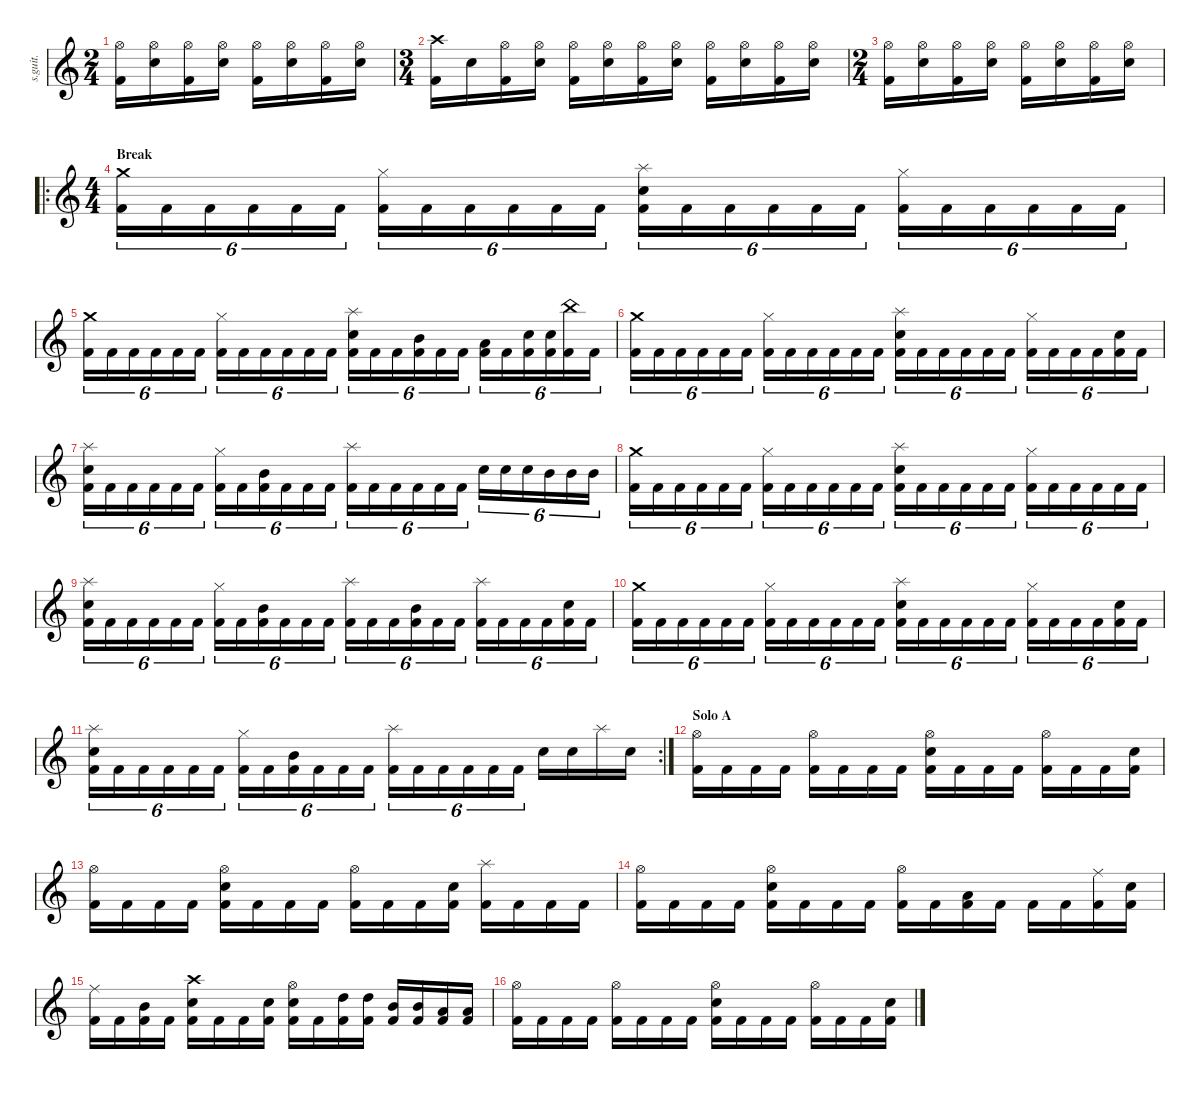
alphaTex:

\defaultSystemsLayout 4
\hideDynamics
\bracketExtendMode nobrackets
\track ("Percussion" "s.guit.") {instrument percussion}
\staff {score}
\articulation defaults
\ts (2 4)
\beaming (8 2 2 2 2)
\tempo (120 hide)
\clef g2
\ks c
("Hi-Hat (open)" "Kick (hit) 2").16{lyrics (0 "") lyrics (1 "") lyrics (2 "") lyrics (3 "") lyrics (4 "") dy f} ("Hi-Hat (open)" "Snare (hit) 2").16{lyrics (0 "") lyrics (1 "") lyrics (2 "") lyrics (3 "") lyrics (4 "")} ("Hi-Hat (open)" "Kick (hit) 2").16{lyrics (0 "") lyrics (1 "") lyrics (2 "") lyrics (3 "") lyrics (4 "")} ("Hi-Hat (open)" "Snare (hit) 2").16{lyrics (0 "") lyrics (1 "") lyrics (2 "") lyrics (3 "") lyrics (4 "")} ("Hi-Hat (open)" "Kick (hit) 2").16{lyrics (0 "") lyrics (1 "") lyrics (2 "") lyrics (3 "") lyrics (4 "")} ("Hi-Hat (open)" "Snare (hit) 2").16{lyrics (0 "") lyrics (1 "") lyrics (2 "") lyrics (3 "") lyrics (4 "")} ("Hi-Hat (open)" "Kick (hit) 2").16{lyrics (0 "") lyrics (1 "") lyrics (2 "") lyrics (3 "") lyrics (4 "")} ("Hi-Hat (open)" "Snare (hit) 2").16{lyrics (0 "") lyrics (1 "") lyrics (2 "") lyrics (3 "") lyrics (4 "")} |
\ts (3 4)
\beaming (8 2 2 2 2)
("Kick (hit) 2" "Crash high (hit)").16{lyrics (0 "") lyrics (1 "") lyrics (2 "") lyrics (3 "") lyrics (4 "")} "Snare (hit) 2".16{lyrics (0 "") lyrics (1 "") lyrics (2 "") lyrics (3 "") lyrics (4 "")} ("Hi-Hat (open)" "Kick (hit) 2").16{lyrics (0 "") lyrics (1 "") lyrics (2 "") lyrics (3 "") lyrics (4 "")} ("Hi-Hat (open)" "Snare (hit) 2").16{lyrics (0 "") lyrics (1 "") lyrics (2 "") lyrics (3 "") lyrics (4 "")} ("Hi-Hat (open)" "Kick (hit) 2").16{lyrics (0 "") lyrics (1 "") lyrics (2 "") lyrics (3 "") lyrics (4 "")} ("Hi-Hat (open)" "Snare (hit) 2").16{lyrics (0 "") lyrics (1 "") lyrics (2 "") lyrics (3 "") lyrics (4 "")} ("Hi-Hat (open)" "Kick (hit) 2").16{lyrics (0 "") lyrics (1 "") lyrics (2 "") lyrics (3 "") lyrics (4 "")} ("Hi-Hat (open)" "Snare (hit) 2").16{lyrics (0 "") lyrics (1 "") lyrics (2 "") lyrics (3 "") lyrics (4 "")} ("Hi-Hat (open)" "Kick (hit) 2").16{lyrics (0 "") lyrics (1 "") lyrics (2 "") lyrics (3 "") lyrics (4 "")} ("Hi-Hat (open)" "Snare (hit) 2").16{lyrics (0 "") lyrics (1 "") lyrics (2 "") lyrics (3 "") lyrics (4 "")} ("Hi-Hat (open)" "Kick (hit) 2").16{lyrics (0 "") lyrics (1 "") lyrics (2 "") lyrics (3 "") lyrics (4 "")} ("Hi-Hat (open)" "Snare (hit) 2").16{lyrics (0 "") lyrics (1 "") lyrics (2 "") lyrics (3 "") lyrics (4 "")} |
\ts (2 4)
\beaming (8 2 2 2 2)
("Hi-Hat (open)" "Kick (hit) 2").16{lyrics (0 "") lyrics (1 "") lyrics (2 "") lyrics (3 "") lyrics (4 "")} ("Hi-Hat (open)" "Snare (hit) 2").16{lyrics (0 "") lyrics (1 "") lyrics (2 "") lyrics (3 "") lyrics (4 "")} ("Hi-Hat (open)" "Kick (hit) 2").16{lyrics (0 "") lyrics (1 "") lyrics (2 "") lyrics (3 "") lyrics (4 "")} ("Hi-Hat (open)" "Snare (hit) 2").16{lyrics (0 "") lyrics (1 "") lyrics (2 "") lyrics (3 "") lyrics (4 "")} ("Hi-Hat (open)" "Kick (hit) 2").16{lyrics (0 "") lyrics (1 "") lyrics (2 "") lyrics (3 "") lyrics (4 "")} ("Hi-Hat (open)" "Snare (hit) 2").16{lyrics (0 "") lyrics (1 "") lyrics (2 "") lyrics (3 "") lyrics (4 "")} ("Hi-Hat (open)" "Kick (hit) 2").16{lyrics (0 "") lyrics (1 "") lyrics (2 "") lyrics (3 "") lyrics (4 "")} ("Hi-Hat (open)" "Snare (hit) 2").16{lyrics (0 "") lyrics (1 "") lyrics (2 "") lyrics (3 "") lyrics (4 "")} |
\ro
\ts (4 4)
\beaming (8 2 2 2 2)
\section ("" "Break")
("Crash medium (hit)" "Kick (hit) 2").16{tu (6 4) lyrics (0 "") lyrics (1 "") lyrics (2 "") lyrics (3 "") lyrics (4 "")} "Kick (hit) 2".16{tu (6 4) lyrics (0 "") lyrics (1 "") lyrics (2 "") lyrics (3 "") lyrics (4 "")} "Kick (hit) 2".16{tu (6 4) lyrics (0 "") lyrics (1 "") lyrics (2 "") lyrics (3 "") lyrics (4 "")} "Kick (hit) 2".16{tu (6 4) lyrics (0 "") lyrics (1 "") lyrics (2 "") lyrics (3 "") lyrics (4 "")} "Kick (hit) 2".16{tu (6 4) lyrics (0 "") lyrics (1 "") lyrics (2 "") lyrics (3 "") lyrics (4 "")} "Kick (hit) 2".16{tu (6 4) lyrics (0 "") lyrics (1 "") lyrics (2 "") lyrics (3 "") lyrics (4 "")} ("Hi-Hat (closed)" "Kick (hit) 2").16{tu (6 4) lyrics (0 "") lyrics (1 "") lyrics (2 "") lyrics (3 "") lyrics (4 "")} "Kick (hit) 2".16{tu (6 4) lyrics (0 "") lyrics (1 "") lyrics (2 "") lyrics (3 "") lyrics (4 "")} "Kick (hit) 2".16{tu (6 4) lyrics (0 "") lyrics (1 "") lyrics (2 "") lyrics (3 "") lyrics (4 "")} "Kick (hit) 2".16{tu (6 4) lyrics (0 "") lyrics (1 "") lyrics (2 "") lyrics (3 "") lyrics (4 "")} "Kick (hit) 2".16{tu (6 4) lyrics (0 "") lyrics (1 "") lyrics (2 "") lyrics (3 "") lyrics (4 "")} "Kick (hit) 2".16{tu (6 4) lyrics (0 "") lyrics (1 "") lyrics (2 "") lyrics (3 "") lyrics (4 "")} ("Splash (hit)" "Kick (hit) 2" "Snare (hit) 2").16{tu (6 4) lyrics (0 "") lyrics (1 "") lyrics (2 "") lyrics (3 "") lyrics (4 "")} "Kick (hit) 2".16{tu (6 4) lyrics (0 "") lyrics (1 "") lyrics (2 "") lyrics (3 "") lyrics (4 "")} "Kick (hit) 2".16{tu (6 4) lyrics (0 "") lyrics (1 "") lyrics (2 "") lyrics (3 "") lyrics (4 "")} "Kick (hit) 2".16{tu (6 4) lyrics (0 "") lyrics (1 "") lyrics (2 "") lyrics (3 "") lyrics (4 "")} "Kick (hit) 2".16{tu (6 4) lyrics (0 "") lyrics (1 "") lyrics (2 "") lyrics (3 "") lyrics (4 "")} "Kick (hit) 2".16{tu (6 4) lyrics (0 "") lyrics (1 "") lyrics (2 "") lyrics (3 "") lyrics (4 "")} ("Hi-Hat (closed)" "Kick (hit) 2").16{tu (6 4) lyrics (0 "") lyrics (1 "") lyrics (2 "") lyrics (3 "") lyrics (4 "")} "Kick (hit) 2".16{tu (6 4) lyrics (0 "") lyrics (1 "") lyrics (2 "") lyrics (3 "") lyrics (4 "")} "Kick (hit) 2".16{tu (6 4) lyrics (0 "") lyrics (1 "") lyrics (2 "") lyrics (3 "") lyrics (4 "")} "Kick (hit) 2".16{tu (6 4) lyrics (0 "") lyrics (1 "") lyrics (2 "") lyrics (3 "") lyrics (4 "")} "Kick (hit) 2".16{tu (6 4) lyrics (0 "") lyrics (1 "") lyrics (2 "") lyrics (3 "") lyrics (4 "")} "Kick (hit) 2".16{tu (6 4) lyrics (0 "") lyrics (1 "") lyrics (2 "") lyrics (3 "") lyrics (4 "")} |
("Crash medium (hit)" "Kick (hit) 2").16{tu (6 4) lyrics (0 "") lyrics (1 "") lyrics (2 "") lyrics (3 "") lyrics (4 "")} "Kick (hit) 2".16{tu (6 4) lyrics (0 "") lyrics (1 "") lyrics (2 "") lyrics (3 "") lyrics (4 "")} "Kick (hit) 2".16{tu (6 4) lyrics (0 "") lyrics (1 "") lyrics (2 "") lyrics (3 "") lyrics (4 "")} "Kick (hit) 2".16{tu (6 4) lyrics (0 "") lyrics (1 "") lyrics (2 "") lyrics (3 "") lyrics (4 "")} "Kick (hit) 2".16{tu (6 4) lyrics (0 "") lyrics (1 "") lyrics (2 "") lyrics (3 "") lyrics (4 "")} "Kick (hit) 2".16{tu (6 4) lyrics (0 "") lyrics (1 "") lyrics (2 "") lyrics (3 "") lyrics (4 "")} ("Hi-Hat (closed)" "Kick (hit) 2").16{tu (6 4) lyrics (0 "") lyrics (1 "") lyrics (2 "") lyrics (3 "") lyrics (4 "")} "Kick (hit) 2".16{tu (6 4) lyrics (0 "") lyrics (1 "") lyrics (2 "") lyrics (3 "") lyrics (4 "")} "Kick (hit) 2".16{tu (6 4) lyrics (0 "") lyrics (1 "") lyrics (2 "") lyrics (3 "") lyrics (4 "")} "Kick (hit) 2".16{tu (6 4) lyrics (0 "") lyrics (1 "") lyrics (2 "") lyrics (3 "") lyrics (4 "")} "Kick (hit) 2".16{tu (6 4) lyrics (0 "") lyrics (1 "") lyrics (2 "") lyrics (3 "") lyrics (4 "")} "Kick (hit) 2".16{tu (6 4) lyrics (0 "") lyrics (1 "") lyrics (2 "") lyrics (3 "") lyrics (4 "")} ("Splash (hit)" "Kick (hit) 2" "Snare (hit) 2").16{tu (6 4) lyrics (0 "") lyrics (1 "") lyrics (2 "") lyrics (3 "") lyrics (4 "")} "Kick (hit) 2".16{tu (6 4) lyrics (0 "") lyrics (1 "") lyrics (2 "") lyrics (3 "") lyrics (4 "")} "Kick (hit) 2".16{tu (6 4) lyrics (0 "") lyrics (1 "") lyrics (2 "") lyrics (3 "") lyrics (4 "")} ("Mid Tom (hit)" "Kick (hit) 2").16{tu (6 4) lyrics (0 "") lyrics (1 "") lyrics (2 "") lyrics (3 "") lyrics (4 "")} "Kick (hit) 2".16{tu (6 4) lyrics (0 "") lyrics (1 "") lyrics (2 "") lyrics (3 "") lyrics (4 "")} "Kick (hit) 2".16{tu (6 4) lyrics (0 "") lyrics (1 "") lyrics (2 "") lyrics (3 "") lyrics (4 "")} ("Low Floor Tom (hit)" "Kick (hit) 2").16{tu (6 4) lyrics (0 "") lyrics (1 "") lyrics (2 "") lyrics (3 "") lyrics (4 "")} "Kick (hit) 2".16{tu (6 4) lyrics (0 "") lyrics (1 "") lyrics (2 "") lyrics (3 "") lyrics (4 "")} ("Snare (hit) 2" "Kick (hit) 2").16{tu (6 4) lyrics (0 "") lyrics (1 "") lyrics (2 "") lyrics (3 "") lyrics (4 "")} ("Snare (hit) 2" "Kick (hit) 2").16{tu (6 4) lyrics (0 "") lyrics (1 "") lyrics (2 "") lyrics (3 "") lyrics (4 "")} ("China (hit)" "Kick (hit) 2").16{tu (6 4) lyrics (0 "") lyrics (1 "") lyrics (2 "") lyrics (3 "") lyrics (4 "")} "Kick (hit) 2".16{tu (6 4) lyrics (0 "") lyrics (1 "") lyrics (2 "") lyrics (3 "") lyrics (4 "")} |
("Crash medium (hit)" "Kick (hit) 2").16{tu (6 4) lyrics (0 "") lyrics (1 "") lyrics (2 "") lyrics (3 "") lyrics (4 "")} "Kick (hit) 2".16{tu (6 4) lyrics (0 "") lyrics (1 "") lyrics (2 "") lyrics (3 "") lyrics (4 "")} "Kick (hit) 2".16{tu (6 4) lyrics (0 "") lyrics (1 "") lyrics (2 "") lyrics (3 "") lyrics (4 "")} "Kick (hit) 2".16{tu (6 4) lyrics (0 "") lyrics (1 "") lyrics (2 "") lyrics (3 "") lyrics (4 "")} "Kick (hit) 2".16{tu (6 4) lyrics (0 "") lyrics (1 "") lyrics (2 "") lyrics (3 "") lyrics (4 "")} "Kick (hit) 2".16{tu (6 4) lyrics (0 "") lyrics (1 "") lyrics (2 "") lyrics (3 "") lyrics (4 "")} ("Hi-Hat (closed)" "Kick (hit) 2").16{tu (6 4) lyrics (0 "") lyrics (1 "") lyrics (2 "") lyrics (3 "") lyrics (4 "")} "Kick (hit) 2".16{tu (6 4) lyrics (0 "") lyrics (1 "") lyrics (2 "") lyrics (3 "") lyrics (4 "")} "Kick (hit) 2".16{tu (6 4) lyrics (0 "") lyrics (1 "") lyrics (2 "") lyrics (3 "") lyrics (4 "")} "Kick (hit) 2".16{tu (6 4) lyrics (0 "") lyrics (1 "") lyrics (2 "") lyrics (3 "") lyrics (4 "")} "Kick (hit) 2".16{tu (6 4) lyrics (0 "") lyrics (1 "") lyrics (2 "") lyrics (3 "") lyrics (4 "")} "Kick (hit) 2".16{tu (6 4) lyrics (0 "") lyrics (1 "") lyrics (2 "") lyrics (3 "") lyrics (4 "")} ("Splash (hit)" "Kick (hit) 2" "Snare (hit) 2").16{tu (6 4) lyrics (0 "") lyrics (1 "") lyrics (2 "") lyrics (3 "") lyrics (4 "")} "Kick (hit) 2".16{tu (6 4) lyrics (0 "") lyrics (1 "") lyrics (2 "") lyrics (3 "") lyrics (4 "")} "Kick (hit) 2".16{tu (6 4) lyrics (0 "") lyrics (1 "") lyrics (2 "") lyrics (3 "") lyrics (4 "")} "Kick (hit) 2".16{tu (6 4) lyrics (0 "") lyrics (1 "") lyrics (2 "") lyrics (3 "") lyrics (4 "")} "Kick (hit) 2".16{tu (6 4) lyrics (0 "") lyrics (1 "") lyrics (2 "") lyrics (3 "") lyrics (4 "")} "Kick (hit) 2".16{tu (6 4) lyrics (0 "") lyrics (1 "") lyrics (2 "") lyrics (3 "") lyrics (4 "")} ("Hi-Hat (closed)" "Kick (hit) 2").16{tu (6 4) lyrics (0 "") lyrics (1 "") lyrics (2 "") lyrics (3 "") lyrics (4 "")} "Kick (hit) 2".16{tu (6 4) lyrics (0 "") lyrics (1 "") lyrics (2 "") lyrics (3 "") lyrics (4 "")} "Kick (hit) 2".16{tu (6 4) lyrics (0 "") lyrics (1 "") lyrics (2 "") lyrics (3 "") lyrics (4 "")} "Kick (hit) 2".16{tu (6 4) lyrics (0 "") lyrics (1 "") lyrics (2 "") lyrics (3 "") lyrics (4 "")} ("Snare (hit) 2" "Kick (hit) 2").16{tu (6 4) lyrics (0 "") lyrics (1 "") lyrics (2 "") lyrics (3 "") lyrics (4 "")} "Kick (hit) 2".16{tu (6 4) lyrics (0 "") lyrics (1 "") lyrics (2 "") lyrics (3 "") lyrics (4 "")} |
("Splash (hit)" "Snare (hit) 2" "Kick (hit) 2").16{tu (6 4) lyrics (0 "") lyrics (1 "") lyrics (2 "") lyrics (3 "") lyrics (4 "")} "Kick (hit) 2".16{tu (6 4) lyrics (0 "") lyrics (1 "") lyrics (2 "") lyrics (3 "") lyrics (4 "")} "Kick (hit) 2".16{tu (6 4) lyrics (0 "") lyrics (1 "") lyrics (2 "") lyrics (3 "") lyrics (4 "")} "Kick (hit) 2".16{tu (6 4) lyrics (0 "") lyrics (1 "") lyrics (2 "") lyrics (3 "") lyrics (4 "")} "Kick (hit) 2".16{tu (6 4) lyrics (0 "") lyrics (1 "") lyrics (2 "") lyrics (3 "") lyrics (4 "")} "Kick (hit) 2".16{tu (6 4) lyrics (0 "") lyrics (1 "") lyrics (2 "") lyrics (3 "") lyrics (4 "")} ("Hi-Hat (closed)" "Kick (hit) 2").16{tu (6 4) lyrics (0 "") lyrics (1 "") lyrics (2 "") lyrics (3 "") lyrics (4 "")} "Kick (hit) 2".16{tu (6 4) lyrics (0 "") lyrics (1 "") lyrics (2 "") lyrics (3 "") lyrics (4 "")} ("Mid Tom (hit)" "Kick (hit) 2").16{tu (6 4) lyrics (0 "") lyrics (1 "") lyrics (2 "") lyrics (3 "") lyrics (4 "")} "Kick (hit) 2".16{tu (6 4) lyrics (0 "") lyrics (1 "") lyrics (2 "") lyrics (3 "") lyrics (4 "")} "Kick (hit) 2".16{tu (6 4) lyrics (0 "") lyrics (1 "") lyrics (2 "") lyrics (3 "") lyrics (4 "")} "Kick (hit) 2".16{tu (6 4) lyrics (0 "") lyrics (1 "") lyrics (2 "") lyrics (3 "") lyrics (4 "")} ("Splash (hit)" "Kick (hit) 2").16{tu (6 4) lyrics (0 "") lyrics (1 "") lyrics (2 "") lyrics (3 "") lyrics (4 "")} "Kick (hit) 2".16{tu (6 4) lyrics (0 "") lyrics (1 "") lyrics (2 "") lyrics (3 "") lyrics (4 "")} "Kick (hit) 2".16{tu (6 4) lyrics (0 "") lyrics (1 "") lyrics (2 "") lyrics (3 "") lyrics (4 "")} "Kick (hit) 2".16{tu (6 4) lyrics (0 "") lyrics (1 "") lyrics (2 "") lyrics (3 "") lyrics (4 "")} "Kick (hit) 2".16{tu (6 4) lyrics (0 "") lyrics (1 "") lyrics (2 "") lyrics (3 "") lyrics (4 "")} "Kick (hit) 2".16{tu (6 4) lyrics (0 "") lyrics (1 "") lyrics (2 "") lyrics (3 "") lyrics (4 "")} "Snare (hit) 2".16{tu (6 4) lyrics (0 "") lyrics (1 "") lyrics (2 "") lyrics (3 "") lyrics (4 "")} "Snare (hit) 2".16{tu (6 4) lyrics (0 "") lyrics (1 "") lyrics (2 "") lyrics (3 "") lyrics (4 "")} "Snare (hit) 2".16{tu (6 4) lyrics (0 "") lyrics (1 "") lyrics (2 "") lyrics (3 "") lyrics (4 "")} "Mid Tom (hit)".16{tu (6 4) lyrics (0 "") lyrics (1 "") lyrics (2 "") lyrics (3 "") lyrics (4 "")} "Mid Tom (hit)".16{tu (6 4) lyrics (0 "") lyrics (1 "") lyrics (2 "") lyrics (3 "") lyrics (4 "")} "Mid Tom (hit)".16{tu (6 4) lyrics (0 "") lyrics (1 "") lyrics (2 "") lyrics (3 "") lyrics (4 "")} |
("Crash medium (hit)" "Kick (hit) 2").16{tu (6 4) lyrics (0 "") lyrics (1 "") lyrics (2 "") lyrics (3 "") lyrics (4 "")} "Kick (hit) 2".16{tu (6 4) lyrics (0 "") lyrics (1 "") lyrics (2 "") lyrics (3 "") lyrics (4 "")} "Kick (hit) 2".16{tu (6 4) lyrics (0 "") lyrics (1 "") lyrics (2 "") lyrics (3 "") lyrics (4 "")} "Kick (hit) 2".16{tu (6 4) lyrics (0 "") lyrics (1 "") lyrics (2 "") lyrics (3 "") lyrics (4 "")} "Kick (hit) 2".16{tu (6 4) lyrics (0 "") lyrics (1 "") lyrics (2 "") lyrics (3 "") lyrics (4 "")} "Kick (hit) 2".16{tu (6 4) lyrics (0 "") lyrics (1 "") lyrics (2 "") lyrics (3 "") lyrics (4 "")} ("Hi-Hat (closed)" "Kick (hit) 2").16{tu (6 4) lyrics (0 "") lyrics (1 "") lyrics (2 "") lyrics (3 "") lyrics (4 "")} "Kick (hit) 2".16{tu (6 4) lyrics (0 "") lyrics (1 "") lyrics (2 "") lyrics (3 "") lyrics (4 "")} "Kick (hit) 2".16{tu (6 4) lyrics (0 "") lyrics (1 "") lyrics (2 "") lyrics (3 "") lyrics (4 "")} "Kick (hit) 2".16{tu (6 4) lyrics (0 "") lyrics (1 "") lyrics (2 "") lyrics (3 "") lyrics (4 "")} "Kick (hit) 2".16{tu (6 4) lyrics (0 "") lyrics (1 "") lyrics (2 "") lyrics (3 "") lyrics (4 "")} "Kick (hit) 2".16{tu (6 4) lyrics (0 "") lyrics (1 "") lyrics (2 "") lyrics (3 "") lyrics (4 "")} ("Splash (hit)" "Kick (hit) 2" "Snare (hit) 2").16{tu (6 4) lyrics (0 "") lyrics (1 "") lyrics (2 "") lyrics (3 "") lyrics (4 "")} "Kick (hit) 2".16{tu (6 4) lyrics (0 "") lyrics (1 "") lyrics (2 "") lyrics (3 "") lyrics (4 "")} "Kick (hit) 2".16{tu (6 4) lyrics (0 "") lyrics (1 "") lyrics (2 "") lyrics (3 "") lyrics (4 "")} "Kick (hit) 2".16{tu (6 4) lyrics (0 "") lyrics (1 "") lyrics (2 "") lyrics (3 "") lyrics (4 "")} "Kick (hit) 2".16{tu (6 4) lyrics (0 "") lyrics (1 "") lyrics (2 "") lyrics (3 "") lyrics (4 "")} "Kick (hit) 2".16{tu (6 4) lyrics (0 "") lyrics (1 "") lyrics (2 "") lyrics (3 "") lyrics (4 "")} ("Hi-Hat (closed)" "Kick (hit) 2").16{tu (6 4) lyrics (0 "") lyrics (1 "") lyrics (2 "") lyrics (3 "") lyrics (4 "")} "Kick (hit) 2".16{tu (6 4) lyrics (0 "") lyrics (1 "") lyrics (2 "") lyrics (3 "") lyrics (4 "")} "Kick (hit) 2".16{tu (6 4) lyrics (0 "") lyrics (1 "") lyrics (2 "") lyrics (3 "") lyrics (4 "")} "Kick (hit) 2".16{tu (6 4) lyrics (0 "") lyrics (1 "") lyrics (2 "") lyrics (3 "") lyrics (4 "")} "Kick (hit) 2".16{tu (6 4) lyrics (0 "") lyrics (1 "") lyrics (2 "") lyrics (3 "") lyrics (4 "")} "Kick (hit) 2".16{tu (6 4) lyrics (0 "") lyrics (1 "") lyrics (2 "") lyrics (3 "") lyrics (4 "")} |
("Splash (hit)" "Snare (hit) 2" "Kick (hit) 2").16{tu (6 4) lyrics (0 "") lyrics (1 "") lyrics (2 "") lyrics (3 "") lyrics (4 "")} "Kick (hit) 2".16{tu (6 4) lyrics (0 "") lyrics (1 "") lyrics (2 "") lyrics (3 "") lyrics (4 "")} "Kick (hit) 2".16{tu (6 4) lyrics (0 "") lyrics (1 "") lyrics (2 "") lyrics (3 "") lyrics (4 "")} "Kick (hit) 2".16{tu (6 4) lyrics (0 "") lyrics (1 "") lyrics (2 "") lyrics (3 "") lyrics (4 "")} "Kick (hit) 2".16{tu (6 4) lyrics (0 "") lyrics (1 "") lyrics (2 "") lyrics (3 "") lyrics (4 "")} "Kick (hit) 2".16{tu (6 4) lyrics (0 "") lyrics (1 "") lyrics (2 "") lyrics (3 "") lyrics (4 "")} ("Hi-Hat (closed)" "Kick (hit) 2").16{tu (6 4) lyrics (0 "") lyrics (1 "") lyrics (2 "") lyrics (3 "") lyrics (4 "")} "Kick (hit) 2".16{tu (6 4) lyrics (0 "") lyrics (1 "") lyrics (2 "") lyrics (3 "") lyrics (4 "")} ("Mid Tom (hit)" "Kick (hit) 2").16{tu (6 4) lyrics (0 "") lyrics (1 "") lyrics (2 "") lyrics (3 "") lyrics (4 "")} "Kick (hit) 2".16{tu (6 4) lyrics (0 "") lyrics (1 "") lyrics (2 "") lyrics (3 "") lyrics (4 "")} "Kick (hit) 2".16{tu (6 4) lyrics (0 "") lyrics (1 "") lyrics (2 "") lyrics (3 "") lyrics (4 "")} "Kick (hit) 2".16{tu (6 4) lyrics (0 "") lyrics (1 "") lyrics (2 "") lyrics (3 "") lyrics (4 "")} ("Splash (hit)" "Kick (hit) 2").16{tu (6 4) lyrics (0 "") lyrics (1 "") lyrics (2 "") lyrics (3 "") lyrics (4 "")} "Kick (hit) 2".16{tu (6 4) lyrics (0 "") lyrics (1 "") lyrics (2 "") lyrics (3 "") lyrics (4 "")} "Kick (hit) 2".16{tu (6 4) lyrics (0 "") lyrics (1 "") lyrics (2 "") lyrics (3 "") lyrics (4 "")} ("Mid Tom (hit)" "Kick (hit) 2").16{tu (6 4) lyrics (0 "") lyrics (1 "") lyrics (2 "") lyrics (3 "") lyrics (4 "")} "Kick (hit) 2".16{tu (6 4) lyrics (0 "") lyrics (1 "") lyrics (2 "") lyrics (3 "") lyrics (4 "")} "Kick (hit) 2".16{tu (6 4) lyrics (0 "") lyrics (1 "") lyrics (2 "") lyrics (3 "") lyrics (4 "")} ("Splash (hit)" "Kick (hit) 2").16{tu (6 4) lyrics (0 "") lyrics (1 "") lyrics (2 "") lyrics (3 "") lyrics (4 "")} "Kick (hit) 2".16{tu (6 4) lyrics (0 "") lyrics (1 "") lyrics (2 "") lyrics (3 "") lyrics (4 "")} "Kick (hit) 2".16{tu (6 4) lyrics (0 "") lyrics (1 "") lyrics (2 "") lyrics (3 "") lyrics (4 "")} "Kick (hit) 2".16{tu (6 4) lyrics (0 "") lyrics (1 "") lyrics (2 "") lyrics (3 "") lyrics (4 "")} ("Snare (hit) 2" "Kick (hit) 2").16{tu (6 4) lyrics (0 "") lyrics (1 "") lyrics (2 "") lyrics (3 "") lyrics (4 "")} "Kick (hit) 2".16{tu (6 4) lyrics (0 "") lyrics (1 "") lyrics (2 "") lyrics (3 "") lyrics (4 "")} |
("Crash medium (hit)" "Kick (hit) 2").16{tu (6 4) lyrics (0 "") lyrics (1 "") lyrics (2 "") lyrics (3 "") lyrics (4 "")} "Kick (hit) 2".16{tu (6 4) lyrics (0 "") lyrics (1 "") lyrics (2 "") lyrics (3 "") lyrics (4 "")} "Kick (hit) 2".16{tu (6 4) lyrics (0 "") lyrics (1 "") lyrics (2 "") lyrics (3 "") lyrics (4 "")} "Kick (hit) 2".16{tu (6 4) lyrics (0 "") lyrics (1 "") lyrics (2 "") lyrics (3 "") lyrics (4 "")} "Kick (hit) 2".16{tu (6 4) lyrics (0 "") lyrics (1 "") lyrics (2 "") lyrics (3 "") lyrics (4 "")} "Kick (hit) 2".16{tu (6 4) lyrics (0 "") lyrics (1 "") lyrics (2 "") lyrics (3 "") lyrics (4 "")} ("Hi-Hat (closed)" "Kick (hit) 2").16{tu (6 4) lyrics (0 "") lyrics (1 "") lyrics (2 "") lyrics (3 "") lyrics (4 "")} "Kick (hit) 2".16{tu (6 4) lyrics (0 "") lyrics (1 "") lyrics (2 "") lyrics (3 "") lyrics (4 "")} "Kick (hit) 2".16{tu (6 4) lyrics (0 "") lyrics (1 "") lyrics (2 "") lyrics (3 "") lyrics (4 "")} "Kick (hit) 2".16{tu (6 4) lyrics (0 "") lyrics (1 "") lyrics (2 "") lyrics (3 "") lyrics (4 "")} "Kick (hit) 2".16{tu (6 4) lyrics (0 "") lyrics (1 "") lyrics (2 "") lyrics (3 "") lyrics (4 "")} "Kick (hit) 2".16{tu (6 4) lyrics (0 "") lyrics (1 "") lyrics (2 "") lyrics (3 "") lyrics (4 "")} ("Splash (hit)" "Kick (hit) 2" "Snare (hit) 2").16{tu (6 4) lyrics (0 "") lyrics (1 "") lyrics (2 "") lyrics (3 "") lyrics (4 "")} "Kick (hit) 2".16{tu (6 4) lyrics (0 "") lyrics (1 "") lyrics (2 "") lyrics (3 "") lyrics (4 "")} "Kick (hit) 2".16{tu (6 4) lyrics (0 "") lyrics (1 "") lyrics (2 "") lyrics (3 "") lyrics (4 "")} "Kick (hit) 2".16{tu (6 4) lyrics (0 "") lyrics (1 "") lyrics (2 "") lyrics (3 "") lyrics (4 "")} "Kick (hit) 2".16{tu (6 4) lyrics (0 "") lyrics (1 "") lyrics (2 "") lyrics (3 "") lyrics (4 "")} "Kick (hit) 2".16{tu (6 4) lyrics (0 "") lyrics (1 "") lyrics (2 "") lyrics (3 "") lyrics (4 "")} ("Hi-Hat (closed)" "Kick (hit) 2").16{tu (6 4) lyrics (0 "") lyrics (1 "") lyrics (2 "") lyrics (3 "") lyrics (4 "")} "Kick (hit) 2".16{tu (6 4) lyrics (0 "") lyrics (1 "") lyrics (2 "") lyrics (3 "") lyrics (4 "")} "Kick (hit) 2".16{tu (6 4) lyrics (0 "") lyrics (1 "") lyrics (2 "") lyrics (3 "") lyrics (4 "")} "Kick (hit) 2".16{tu (6 4) lyrics (0 "") lyrics (1 "") lyrics (2 "") lyrics (3 "") lyrics (4 "")} ("Snare (hit) 2" "Kick (hit) 2").16{tu (6 4) lyrics (0 "") lyrics (1 "") lyrics (2 "") lyrics (3 "") lyrics (4 "")} "Kick (hit) 2".16{tu (6 4) lyrics (0 "") lyrics (1 "") lyrics (2 "") lyrics (3 "") lyrics (4 "")} |
\rc 2
("Splash (hit)" "Snare (hit) 2" "Kick (hit) 2").16{tu (6 4) lyrics (0 "") lyrics (1 "") lyrics (2 "") lyrics (3 "") lyrics (4 "")} "Kick (hit) 2".16{tu (6 4) lyrics (0 "") lyrics (1 "") lyrics (2 "") lyrics (3 "") lyrics (4 "")} "Kick (hit) 2".16{tu (6 4) lyrics (0 "") lyrics (1 "") lyrics (2 "") lyrics (3 "") lyrics (4 "")} "Kick (hit) 2".16{tu (6 4) lyrics (0 "") lyrics (1 "") lyrics (2 "") lyrics (3 "") lyrics (4 "")} "Kick (hit) 2".16{tu (6 4) lyrics (0 "") lyrics (1 "") lyrics (2 "") lyrics (3 "") lyrics (4 "")} "Kick (hit) 2".16{tu (6 4) lyrics (0 "") lyrics (1 "") lyrics (2 "") lyrics (3 "") lyrics (4 "")} ("Hi-Hat (closed)" "Kick (hit) 2").16{tu (6 4) lyrics (0 "") lyrics (1 "") lyrics (2 "") lyrics (3 "") lyrics (4 "")} "Kick (hit) 2".16{tu (6 4) lyrics (0 "") lyrics (1 "") lyrics (2 "") lyrics (3 "") lyrics (4 "")} ("Mid Tom (hit)" "Kick (hit) 2").16{tu (6 4) lyrics (0 "") lyrics (1 "") lyrics (2 "") lyrics (3 "") lyrics (4 "")} "Kick (hit) 2".16{tu (6 4) lyrics (0 "") lyrics (1 "") lyrics (2 "") lyrics (3 "") lyrics (4 "")} "Kick (hit) 2".16{tu (6 4) lyrics (0 "") lyrics (1 "") lyrics (2 "") lyrics (3 "") lyrics (4 "")} "Kick (hit) 2".16{tu (6 4) lyrics (0 "") lyrics (1 "") lyrics (2 "") lyrics (3 "") lyrics (4 "")} ("Splash (hit)" "Kick (hit) 2").16{tu (6 4) lyrics (0 "") lyrics (1 "") lyrics (2 "") lyrics (3 "") lyrics (4 "")} "Kick (hit) 2".16{tu (6 4) lyrics (0 "") lyrics (1 "") lyrics (2 "") lyrics (3 "") lyrics (4 "")} "Kick (hit) 2".16{tu (6 4) lyrics (0 "") lyrics (1 "") lyrics (2 "") lyrics (3 "") lyrics (4 "")} "Kick (hit) 2".16{tu (6 4) lyrics (0 "") lyrics (1 "") lyrics (2 "") lyrics (3 "") lyrics (4 "")} "Kick (hit) 2".16{tu (6 4) lyrics (0 "") lyrics (1 "") lyrics (2 "") lyrics (3 "") lyrics (4 "")} "Kick (hit) 2".16{tu (6 4) lyrics (0 "") lyrics (1 "") lyrics (2 "") lyrics (3 "") lyrics (4 "")} "Snare (hit) 2".16{lyrics (0 "") lyrics (1 "") lyrics (2 "") lyrics (3 "") lyrics (4 "")} "Snare (hit) 2".16{lyrics (0 "") lyrics (1 "") lyrics (2 "") lyrics (3 "") lyrics (4 "")} "Splash (hit)".16{lyrics (0 "") lyrics (1 "") lyrics (2 "") lyrics (3 "") lyrics (4 "")} "Snare (hit) 2".16{lyrics (0 "") lyrics (1 "") lyrics (2 "") lyrics (3 "") lyrics (4 "")} |
\section ("" "Solo A")
("Kick (hit) 2" "Hi-Hat (open)").16{lyrics (0 "") lyrics (1 "") lyrics (2 "") lyrics (3 "") lyrics (4 "")} "Kick (hit) 2".16{lyrics (0 "") lyrics (1 "") lyrics (2 "") lyrics (3 "") lyrics (4 "")} "Kick (hit) 2".16{lyrics (0 "") lyrics (1 "") lyrics (2 "") lyrics (3 "") lyrics (4 "")} "Kick (hit) 2".16{lyrics (0 "") lyrics (1 "") lyrics (2 "") lyrics (3 "") lyrics (4 "")} ("Kick (hit) 2" "Hi-Hat (open)").16{lyrics (0 "") lyrics (1 "") lyrics (2 "") lyrics (3 "") lyrics (4 "")} "Kick (hit) 2".16{lyrics (0 "") lyrics (1 "") lyrics (2 "") lyrics (3 "") lyrics (4 "")} "Kick (hit) 2".16{lyrics (0 "") lyrics (1 "") lyrics (2 "") lyrics (3 "") lyrics (4 "")} "Kick (hit) 2".16{lyrics (0 "") lyrics (1 "") lyrics (2 "") lyrics (3 "") lyrics (4 "")} ("Kick (hit) 2" "Snare (hit) 2" "Hi-Hat (open)").16{lyrics (0 "") lyrics (1 "") lyrics (2 "") lyrics (3 "") lyrics (4 "")} "Kick (hit) 2".16{lyrics (0 "") lyrics (1 "") lyrics (2 "") lyrics (3 "") lyrics (4 "")} "Kick (hit) 2".16{lyrics (0 "") lyrics (1 "") lyrics (2 "") lyrics (3 "") lyrics (4 "")} "Kick (hit) 2".16{lyrics (0 "") lyrics (1 "") lyrics (2 "") lyrics (3 "") lyrics (4 "")} ("Kick (hit) 2" "Hi-Hat (open)").16{lyrics (0 "") lyrics (1 "") lyrics (2 "") lyrics (3 "") lyrics (4 "")} "Kick (hit) 2".16{lyrics (0 "") lyrics (1 "") lyrics (2 "") lyrics (3 "") lyrics (4 "")} "Kick (hit) 2".16{lyrics (0 "") lyrics (1 "") lyrics (2 "") lyrics (3 "") lyrics (4 "")} ("Snare (hit) 2" "Kick (hit) 2").16{lyrics (0 "") lyrics (1 "") lyrics (2 "") lyrics (3 "") lyrics (4 "")} |
("Kick (hit) 2" "Hi-Hat (open)").16{lyrics (0 "") lyrics (1 "") lyrics (2 "") lyrics (3 "") lyrics (4 "")} "Kick (hit) 2".16{lyrics (0 "") lyrics (1 "") lyrics (2 "") lyrics (3 "") lyrics (4 "")} "Kick (hit) 2".16{lyrics (0 "") lyrics (1 "") lyrics (2 "") lyrics (3 "") lyrics (4 "")} "Kick (hit) 2".16{lyrics (0 "") lyrics (1 "") lyrics (2 "") lyrics (3 "") lyrics (4 "")} ("Snare (hit) 2" "Kick (hit) 2" "Hi-Hat (open)").16{lyrics (0 "") lyrics (1 "") lyrics (2 "") lyrics (3 "") lyrics (4 "")} "Kick (hit) 2".16{lyrics (0 "") lyrics (1 "") lyrics (2 "") lyrics (3 "") lyrics (4 "")} "Kick (hit) 2".16{lyrics (0 "") lyrics (1 "") lyrics (2 "") lyrics (3 "") lyrics (4 "")} "Kick (hit) 2".16{lyrics (0 "") lyrics (1 "") lyrics (2 "") lyrics (3 "") lyrics (4 "")} ("Hi-Hat (open)" "Kick (hit) 2").16{lyrics (0 "") lyrics (1 "") lyrics (2 "") lyrics (3 "") lyrics (4 "")} "Kick (hit) 2".16{lyrics (0 "") lyrics (1 "") lyrics (2 "") lyrics (3 "") lyrics (4 "")} "Kick (hit) 2".16{lyrics (0 "") lyrics (1 "") lyrics (2 "") lyrics (3 "") lyrics (4 "")} ("Snare (hit) 2" "Kick (hit) 2").16{lyrics (0 "") lyrics (1 "") lyrics (2 "") lyrics (3 "") lyrics (4 "")} ("Splash (hit)" "Kick (hit) 2").16{lyrics (0 "") lyrics (1 "") lyrics (2 "") lyrics (3 "") lyrics (4 "")} "Kick (hit) 2".16{lyrics (0 "") lyrics (1 "") lyrics (2 "") lyrics (3 "") lyrics (4 "")} "Kick (hit) 2".16{lyrics (0 "") lyrics (1 "") lyrics (2 "") lyrics (3 "") lyrics (4 "")} "Kick (hit) 2".16{lyrics (0 "") lyrics (1 "") lyrics (2 "") lyrics (3 "") lyrics (4 "")} |
("Kick (hit) 2" "Hi-Hat (open)").16{lyrics (0 "") lyrics (1 "") lyrics (2 "") lyrics (3 "") lyrics (4 "")} "Kick (hit) 2".16{lyrics (0 "") lyrics (1 "") lyrics (2 "") lyrics (3 "") lyrics (4 "")} "Kick (hit) 2".16{lyrics (0 "") lyrics (1 "") lyrics (2 "") lyrics (3 "") lyrics (4 "")} "Kick (hit) 2".16{lyrics (0 "") lyrics (1 "") lyrics (2 "") lyrics (3 "") lyrics (4 "")} ("Hi-Hat (open)" "Snare (hit) 2" "Kick (hit) 2").16{lyrics (0 "") lyrics (1 "") lyrics (2 "") lyrics (3 "") lyrics (4 "")} "Kick (hit) 2".16{lyrics (0 "") lyrics (1 "") lyrics (2 "") lyrics (3 "") lyrics (4 "")} "Kick (hit) 2".16{lyrics (0 "") lyrics (1 "") lyrics (2 "") lyrics (3 "") lyrics (4 "")} "Kick (hit) 2".16{lyrics (0 "") lyrics (1 "") lyrics (2 "") lyrics (3 "") lyrics (4 "")} ("Hi-Hat (open)" "Kick (hit) 2").16{lyrics (0 "") lyrics (1 "") lyrics (2 "") lyrics (3 "") lyrics (4 "")} "Kick (hit) 2".16{lyrics (0 "") lyrics (1 "") lyrics (2 "") lyrics (3 "") lyrics (4 "")} ("Low Floor Tom (hit)" "Kick (hit) 2").16{lyrics (0 "") lyrics (1 "") lyrics (2 "") lyrics (3 "") lyrics (4 "")} "Kick (hit) 2".16{lyrics (0 "") lyrics (1 "") lyrics (2 "") lyrics (3 "") lyrics (4 "")} "Kick (hit) 2".16{lyrics (0 "") lyrics (1 "") lyrics (2 "") lyrics (3 "") lyrics (4 "")} "Kick (hit) 2".16{lyrics (0 "") lyrics (1 "") lyrics (2 "") lyrics (3 "") lyrics (4 "")} ("Ride (middle)" "Kick (hit) 2").16{lyrics (0 "") lyrics (1 "") lyrics (2 "") lyrics (3 "") lyrics (4 "")} ("Snare (hit) 2" "Kick (hit) 2").16{lyrics (0 "") lyrics (1 "") lyrics (2 "") lyrics (3 "") lyrics (4 "")} |
("Ride (middle)" "Kick (hit) 2").16{lyrics (0 "") lyrics (1 "") lyrics (2 "") lyrics (3 "") lyrics (4 "")} "Kick (hit) 2".16{lyrics (0 "") lyrics (1 "") lyrics (2 "") lyrics (3 "") lyrics (4 "")} ("Mid Tom (hit)" "Kick (hit) 2").16{lyrics (0 "") lyrics (1 "") lyrics (2 "") lyrics (3 "") lyrics (4 "")} "Kick (hit) 2".16{lyrics (0 "") lyrics (1 "") lyrics (2 "") lyrics (3 "") lyrics (4 "")} ("Snare (hit) 2" "Kick (hit) 2" "Crash high (hit)").16{lyrics (0 "") lyrics (1 "") lyrics (2 "") lyrics (3 "") lyrics (4 "")} "Kick (hit) 2".16{lyrics (0 "") lyrics (1 "") lyrics (2 "") lyrics (3 "") lyrics (4 "")} "Kick (hit) 2".16{lyrics (0 "") lyrics (1 "") lyrics (2 "") lyrics (3 "") lyrics (4 "")} ("Snare (hit) 2" "Kick (hit) 2").16{lyrics (0 "") lyrics (1 "") lyrics (2 "") lyrics (3 "") lyrics (4 "")} ("Snare (hit) 2" "Kick (hit) 2" "Hi-Hat (open)").16{lyrics (0 "") lyrics (1 "") lyrics (2 "") lyrics (3 "") lyrics (4 "")} "Kick (hit) 2".16{lyrics (0 "") lyrics (1 "") lyrics (2 "") lyrics (3 "") lyrics (4 "")} ("High Tom (hit)" "Kick (hit) 2").16{lyrics (0 "") lyrics (1 "") lyrics (2 "") lyrics (3 "") lyrics (4 "") dy ff} ("High Tom (hit)" "Kick (hit) 2").16{lyrics (0 "") lyrics (1 "") lyrics (2 "") lyrics (3 "") lyrics (4 "")} ("Mid Tom (hit)" "Kick (hit) 2").16{lyrics (0 "") lyrics (1 "") lyrics (2 "") lyrics (3 "") lyrics (4 "")} ("Mid Tom (hit)" "Kick (hit) 2").16{lyrics (0 "") lyrics (1 "") lyrics (2 "") lyrics (3 "") lyrics (4 "")} ("Low Floor Tom (hit)" "Kick (hit) 2").16{lyrics (0 "") lyrics (1 "") lyrics (2 "") lyrics (3 "") lyrics (4 "")} ("Low Floor Tom (hit)" "Kick (hit) 2").16{lyrics (0 "") lyrics (1 "") lyrics (2 "") lyrics (3 "") lyrics (4 "")} |
("Kick (hit) 2" "Hi-Hat (open)").16{lyrics (0 "") lyrics (1 "") lyrics (2 "") lyrics (3 "") lyrics (4 "") dy f} "Kick (hit) 2".16{lyrics (0 "") lyrics (1 "") lyrics (2 "") lyrics (3 "") lyrics (4 "")} "Kick (hit) 2".16{lyrics (0 "") lyrics (1 "") lyrics (2 "") lyrics (3 "") lyrics (4 "")} "Kick (hit) 2".16{lyrics (0 "") lyrics (1 "") lyrics (2 "") lyrics (3 "") lyrics (4 "")} ("Kick (hit) 2" "Hi-Hat (open)").16{lyrics (0 "") lyrics (1 "") lyrics (2 "") lyrics (3 "") lyrics (4 "")} "Kick (hit) 2".16{lyrics (0 "") lyrics (1 "") lyrics (2 "") lyrics (3 "") lyrics (4 "")} "Kick (hit) 2".16{lyrics (0 "") lyrics (1 "") lyrics (2 "") lyrics (3 "") lyrics (4 "")} "Kick (hit) 2".16{lyrics (0 "") lyrics (1 "") lyrics (2 "") lyrics (3 "") lyrics (4 "")} ("Kick (hit) 2" "Snare (hit) 2" "Hi-Hat (open)").16{lyrics (0 "") lyrics (1 "") lyrics (2 "") lyrics (3 "") lyrics (4 "")} "Kick (hit) 2".16{lyrics (0 "") lyrics (1 "") lyrics (2 "") lyrics (3 "") lyrics (4 "")} "Kick (hit) 2".16{lyrics (0 "") lyrics (1 "") lyrics (2 "") lyrics (3 "") lyrics (4 "")} "Kick (hit) 2".16{lyrics (0 "") lyrics (1 "") lyrics (2 "") lyrics (3 "") lyrics (4 "")} ("Kick (hit) 2" "Hi-Hat (open)").16{lyrics (0 "") lyrics (1 "") lyrics (2 "") lyrics (3 "") lyrics (4 "")} "Kick (hit) 2".16{lyrics (0 "") lyrics (1 "") lyrics (2 "") lyrics (3 "") lyrics (4 "")} "Kick (hit) 2".16{lyrics (0 "") lyrics (1 "") lyrics (2 "") lyrics (3 "") lyrics (4 "")} ("Snare (hit) 2" "Kick (hit) 2").16{lyrics (0 "") lyrics (1 "") lyrics (2 "") lyrics (3 "") lyrics (4 "")}
